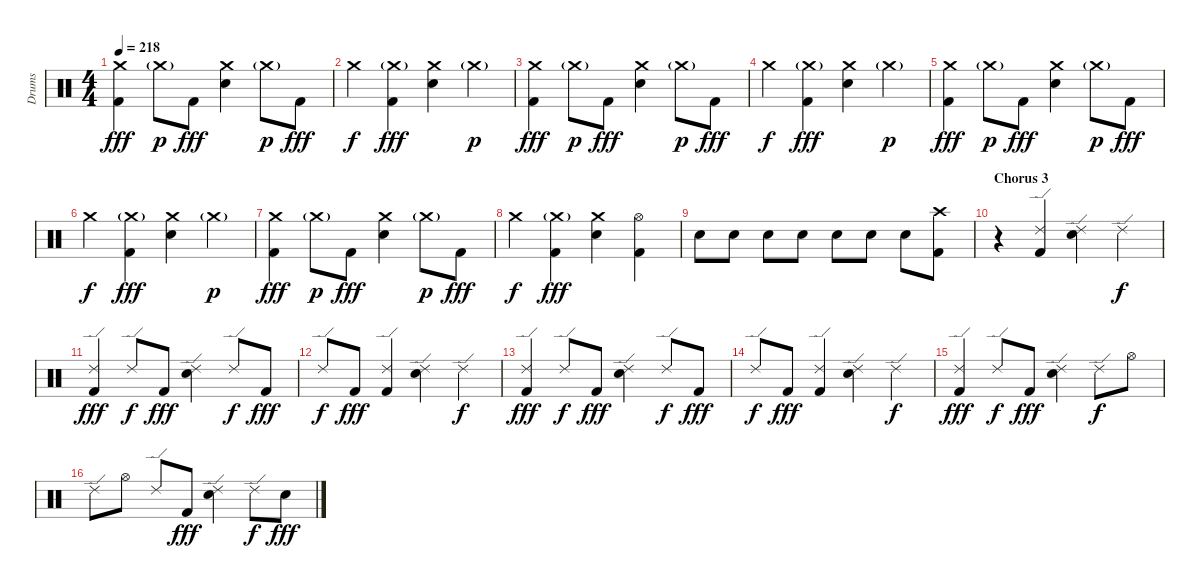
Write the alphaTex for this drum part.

\track ("Drums" "Drums") {instrument percussion}
\staff {score}
\articulation defaults
\ts (4 4)
\tempo 218
\clef neutral
\ks c
("Crash medium (hit)" "Kick (hit) 2").4{dy fff} "Crash medium (hit)"{g}.8{dy p} "Kick (hit) 2".8{dy fff} ("Crash medium (hit)" "Electric Snare (hit)").4 "Crash medium (hit)"{g}.8{dy p} "Kick (hit) 2".8{dy fff} |
"Crash medium (hit)".4{dy f} ("Crash medium (hit)"{g} "Kick (hit) 2").4{dy fff} ("Crash medium (hit)" "Electric Snare (hit)").4 "Crash medium (hit)"{g}.4{dy p} |
("Crash medium (hit)" "Kick (hit) 2").4{dy fff} "Crash medium (hit)"{g}.8{dy p} "Kick (hit) 2".8{dy fff} ("Crash medium (hit)" "Electric Snare (hit)").4 "Crash medium (hit)"{g}.8{dy p} "Kick (hit) 2".8{dy fff} |
"Crash medium (hit)".4{dy f} ("Crash medium (hit)"{g} "Kick (hit) 2").4{dy fff} ("Crash medium (hit)" "Electric Snare (hit)").4 "Crash medium (hit)"{g}.4{dy p} |
("Crash medium (hit)" "Kick (hit) 2").4{dy fff} "Crash medium (hit)"{g}.8{dy p} "Kick (hit) 2".8{dy fff} ("Crash medium (hit)" "Electric Snare (hit)").4 "Crash medium (hit)"{g}.8{dy p} "Kick (hit) 2".8{dy fff} |
"Crash medium (hit)".4{dy f} ("Crash medium (hit)"{g} "Kick (hit) 2").4{dy fff} ("Crash medium (hit)" "Electric Snare (hit)").4 "Crash medium (hit)"{g}.4{dy p} |
("Crash medium (hit)" "Kick (hit) 2").4{dy fff} "Crash medium (hit)"{g}.8{dy p} "Kick (hit) 2".8{dy fff} ("Crash medium (hit)" "Electric Snare (hit)").4 "Crash medium (hit)"{g}.8{dy p} "Kick (hit) 2".8{dy fff} |
"Crash medium (hit)".4{dy f} ("Crash medium (hit)"{g} "Kick (hit) 2").4{dy fff} ("Crash medium (hit)" "Electric Snare (hit)").4 ("Hi-Hat (open)" "Kick (hit) 2").4 |
"Electric Snare (hit)".8 "Electric Snare (hit)".8 "Electric Snare (hit)".8 "Electric Snare (hit)".8 "Electric Snare (hit)".8 "Electric Snare (hit)".8 "Electric Snare (hit)".8 ("Crash high (hit)" "Kick (hit) 2").8 |
\section ("" "Chorus 3")
r.4 ("Ride (edge) 2" "Kick (hit) 2").4 ("Ride (edge) 2" "Electric Snare (hit)").4 "Ride (edge) 2".4{dy f} |
("Ride (edge) 2" "Kick (hit) 2").4{dy fff} "Ride (edge) 2".8{dy f} "Kick (hit) 2".8{dy fff} ("Ride (edge) 2" "Electric Snare (hit)").4 "Ride (edge) 2".8{dy f} "Kick (hit) 2".8{dy fff} |
"Ride (edge) 2".8{dy f} "Kick (hit) 2".8{dy fff} ("Ride (edge) 2" "Kick (hit) 2").4 ("Ride (edge) 2" "Electric Snare (hit)").4 "Ride (edge) 2".4{dy f} |
("Ride (edge) 2" "Kick (hit) 2").4{dy fff} "Ride (edge) 2".8{dy f} "Kick (hit) 2".8{dy fff} ("Ride (edge) 2" "Electric Snare (hit)").4 "Ride (edge) 2".8{dy f} "Kick (hit) 2".8{dy fff} |
"Ride (edge) 2".8{dy f} "Kick (hit) 2".8{dy fff} ("Ride (edge) 2" "Kick (hit) 2").4 ("Ride (edge) 2" "Electric Snare (hit)").4 "Ride (edge) 2".4{dy f} |
("Ride (edge) 2" "Kick (hit) 2").4{dy fff} "Ride (edge) 2".8{dy f} "Kick (hit) 2".8{dy fff} ("Ride (edge) 2" "Electric Snare (hit)").4 "Ride (edge) 2".8{dy f} "Hi-Hat (open)".8 |
"Ride (edge) 2".8 "Hi-Hat (open)".8 "Ride (edge) 2".8 "Kick (hit) 2".8{dy fff} ("Ride (edge) 2" "Electric Snare (hit)").4 "Ride (edge) 2".8{dy f} "Electric Snare (hit)".8{dy fff}
